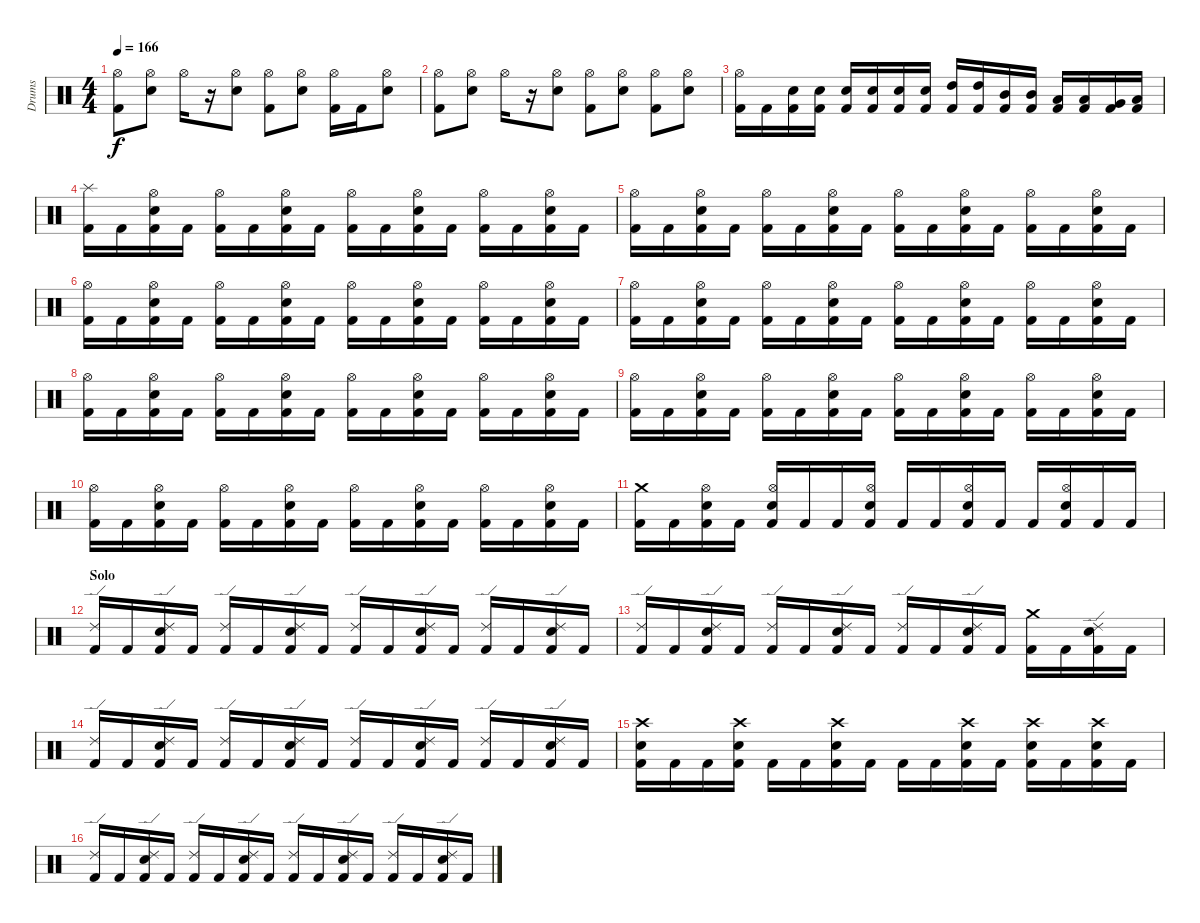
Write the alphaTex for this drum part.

\track ("Drums" "Drums") {instrument percussion}
\staff {score}
\articulation defaults
\ts (4 4)
\tempo 166
\clef neutral
\ks c
("Kick (hit) 2" "Hi-Hat (open)").8{dy f} ("Electric Snare (hit)" "Hi-Hat (open)").8 "Hi-Hat (open)".16 r.16 ("Electric Snare (hit)" "Hi-Hat (open)").8 ("Kick (hit) 2" "Hi-Hat (open)").8 ("Electric Snare (hit)" "Hi-Hat (open)").8 ("Kick (hit) 2" "Hi-Hat (open)").16 "Kick (hit) 2".16 ("Electric Snare (hit)" "Hi-Hat (open)").8 |
("Kick (hit) 2" "Hi-Hat (open)").8 ("Electric Snare (hit)" "Hi-Hat (open)").8 "Hi-Hat (open)".16 r.16 ("Electric Snare (hit)" "Hi-Hat (open)").8 ("Kick (hit) 2" "Hi-Hat (open)").8 ("Electric Snare (hit)" "Hi-Hat (open)").8 ("Kick (hit) 2" "Hi-Hat (open)").8 ("Electric Snare (hit)" "Hi-Hat (open)").8 |
("Kick (hit) 2" "Hi-Hat (open)").16 "Kick (hit) 2".16 ("Kick (hit) 2" "Electric Snare (hit)").16 ("Kick (hit) 2" "Electric Snare (hit)").16 ("Kick (hit) 2" "Electric Snare (hit)").16 ("Kick (hit) 2" "Electric Snare (hit)").16 ("Kick (hit) 2" "Electric Snare (hit)").16 ("Kick (hit) 2" "Electric Snare (hit)").16 ("Kick (hit) 2" "High Tom (hit)").16 ("Kick (hit) 2" "High Tom (hit)").16 ("Kick (hit) 2" "Mid Tom (hit)").16 ("Kick (hit) 2" "Mid Tom (hit)").16 ("Kick (hit) 2" "Low Tom (hit)").16 ("Kick (hit) 2" "Low Tom (hit)").16 ("Kick (hit) 2" "Very Low Tom (hit)").16 ("Kick (hit) 2" "Low Floor Tom (hit)").16 |
\section ("" "")
("Kick (hit) 2" "Splash (hit)").16 "Kick (hit) 2".16 ("Kick (hit) 2" "Electric Snare (hit)" "Hi-Hat (open)").16 "Kick (hit) 2".16 ("Kick (hit) 2" "Hi-Hat (open)").16 "Kick (hit) 2".16 ("Kick (hit) 2" "Electric Snare (hit)" "Hi-Hat (open)").16 "Kick (hit) 2".16 ("Kick (hit) 2" "Hi-Hat (open)").16 "Kick (hit) 2".16 ("Kick (hit) 2" "Electric Snare (hit)" "Hi-Hat (open)").16 "Kick (hit) 2".16 ("Kick (hit) 2" "Hi-Hat (open)").16 "Kick (hit) 2".16 ("Kick (hit) 2" "Electric Snare (hit)" "Hi-Hat (open)").16 "Kick (hit) 2".16 |
("Kick (hit) 2" "Hi-Hat (open)").16 "Kick (hit) 2".16 ("Kick (hit) 2" "Electric Snare (hit)" "Hi-Hat (open)").16 "Kick (hit) 2".16 ("Kick (hit) 2" "Hi-Hat (open)").16 "Kick (hit) 2".16 ("Kick (hit) 2" "Electric Snare (hit)" "Hi-Hat (open)").16 "Kick (hit) 2".16 ("Kick (hit) 2" "Hi-Hat (open)").16 "Kick (hit) 2".16 ("Kick (hit) 2" "Electric Snare (hit)" "Hi-Hat (open)").16 "Kick (hit) 2".16 ("Kick (hit) 2" "Hi-Hat (open)").16 "Kick (hit) 2".16 ("Kick (hit) 2" "Electric Snare (hit)" "Hi-Hat (open)").16 "Kick (hit) 2".16 |
("Kick (hit) 2" "Hi-Hat (open)").16 "Kick (hit) 2".16 ("Kick (hit) 2" "Electric Snare (hit)" "Hi-Hat (open)").16 "Kick (hit) 2".16 ("Kick (hit) 2" "Hi-Hat (open)").16 "Kick (hit) 2".16 ("Kick (hit) 2" "Electric Snare (hit)" "Hi-Hat (open)").16 "Kick (hit) 2".16 ("Kick (hit) 2" "Hi-Hat (open)").16 "Kick (hit) 2".16 ("Kick (hit) 2" "Electric Snare (hit)" "Hi-Hat (open)").16 "Kick (hit) 2".16 ("Kick (hit) 2" "Hi-Hat (open)").16 "Kick (hit) 2".16 ("Kick (hit) 2" "Electric Snare (hit)" "Hi-Hat (open)").16 "Kick (hit) 2".16 |
("Kick (hit) 2" "Hi-Hat (open)").16 "Kick (hit) 2".16 ("Kick (hit) 2" "Electric Snare (hit)" "Hi-Hat (open)").16 "Kick (hit) 2".16 ("Kick (hit) 2" "Hi-Hat (open)").16 "Kick (hit) 2".16 ("Kick (hit) 2" "Electric Snare (hit)" "Hi-Hat (open)").16 "Kick (hit) 2".16 ("Kick (hit) 2" "Hi-Hat (open)").16 "Kick (hit) 2".16 ("Kick (hit) 2" "Electric Snare (hit)" "Hi-Hat (open)").16 "Kick (hit) 2".16 ("Kick (hit) 2" "Hi-Hat (open)").16 "Kick (hit) 2".16 ("Kick (hit) 2" "Electric Snare (hit)" "Hi-Hat (open)").16 "Kick (hit) 2".16 |
("Kick (hit) 2" "Hi-Hat (open)").16 "Kick (hit) 2".16 ("Kick (hit) 2" "Electric Snare (hit)" "Hi-Hat (open)").16 "Kick (hit) 2".16 ("Kick (hit) 2" "Hi-Hat (open)").16 "Kick (hit) 2".16 ("Kick (hit) 2" "Electric Snare (hit)" "Hi-Hat (open)").16 "Kick (hit) 2".16 ("Kick (hit) 2" "Hi-Hat (open)").16 "Kick (hit) 2".16 ("Kick (hit) 2" "Electric Snare (hit)" "Hi-Hat (open)").16 "Kick (hit) 2".16 ("Kick (hit) 2" "Hi-Hat (open)").16 "Kick (hit) 2".16 ("Kick (hit) 2" "Electric Snare (hit)" "Hi-Hat (open)").16 "Kick (hit) 2".16 |
("Kick (hit) 2" "Hi-Hat (open)").16 "Kick (hit) 2".16 ("Kick (hit) 2" "Electric Snare (hit)" "Hi-Hat (open)").16 "Kick (hit) 2".16 ("Kick (hit) 2" "Hi-Hat (open)").16 "Kick (hit) 2".16 ("Kick (hit) 2" "Electric Snare (hit)" "Hi-Hat (open)").16 "Kick (hit) 2".16 ("Kick (hit) 2" "Hi-Hat (open)").16 "Kick (hit) 2".16 ("Kick (hit) 2" "Electric Snare (hit)" "Hi-Hat (open)").16 "Kick (hit) 2".16 ("Kick (hit) 2" "Hi-Hat (open)").16 "Kick (hit) 2".16 ("Kick (hit) 2" "Electric Snare (hit)" "Hi-Hat (open)").16 "Kick (hit) 2".16 |
("Kick (hit) 2" "Hi-Hat (open)").16 "Kick (hit) 2".16 ("Kick (hit) 2" "Electric Snare (hit)" "Hi-Hat (open)").16 "Kick (hit) 2".16 ("Kick (hit) 2" "Hi-Hat (open)").16 "Kick (hit) 2".16 ("Kick (hit) 2" "Electric Snare (hit)" "Hi-Hat (open)").16 "Kick (hit) 2".16 ("Kick (hit) 2" "Hi-Hat (open)").16 "Kick (hit) 2".16 ("Kick (hit) 2" "Electric Snare (hit)" "Hi-Hat (open)").16 "Kick (hit) 2".16 ("Kick (hit) 2" "Hi-Hat (open)").16 "Kick (hit) 2".16 ("Kick (hit) 2" "Electric Snare (hit)" "Hi-Hat (open)").16 "Kick (hit) 2".16 |
("Kick (hit) 2" "Crash medium (hit)").16 "Kick (hit) 2".16 ("Kick (hit) 2" "Electric Snare (hit)" "Hi-Hat (open)").16 "Kick (hit) 2".16 ("Kick (hit) 2" "Electric Snare (hit)" "Hi-Hat (open)").16 "Kick (hit) 2".16 "Kick (hit) 2".16 ("Kick (hit) 2" "Electric Snare (hit)" "Hi-Hat (open)").16 "Kick (hit) 2".16 "Kick (hit) 2".16 ("Kick (hit) 2" "Electric Snare (hit)" "Hi-Hat (open)").16 "Kick (hit) 2".16 "Kick (hit) 2".16 ("Kick (hit) 2" "Electric Snare (hit)" "Hi-Hat (open)").16 "Kick (hit) 2".16 "Kick (hit) 2".16 |
\section ("" "Solo")
("Kick (hit) 2" "Ride (edge) 2").16 "Kick (hit) 2".16 ("Kick (hit) 2" "Electric Snare (hit)" "Ride (edge) 2").16 "Kick (hit) 2".16 ("Kick (hit) 2" "Ride (edge) 2").16 "Kick (hit) 2".16 ("Kick (hit) 2" "Electric Snare (hit)" "Ride (edge) 2").16 "Kick (hit) 2".16 ("Kick (hit) 2" "Ride (edge) 2").16 "Kick (hit) 2".16 ("Kick (hit) 2" "Electric Snare (hit)" "Ride (edge) 2").16 "Kick (hit) 2".16 ("Kick (hit) 2" "Ride (edge) 2").16 "Kick (hit) 2".16 ("Kick (hit) 2" "Electric Snare (hit)" "Ride (edge) 2").16 "Kick (hit) 2".16 |
("Kick (hit) 2" "Ride (edge) 2").16 "Kick (hit) 2".16 ("Kick (hit) 2" "Electric Snare (hit)" "Ride (edge) 2").16 "Kick (hit) 2".16 ("Kick (hit) 2" "Ride (edge) 2").16 "Kick (hit) 2".16 ("Kick (hit) 2" "Electric Snare (hit)" "Ride (edge) 2").16 "Kick (hit) 2".16 ("Kick (hit) 2" "Ride (edge) 2").16 "Kick (hit) 2".16 ("Kick (hit) 2" "Electric Snare (hit)" "Ride (edge) 2").16 "Kick (hit) 2".16 ("Kick (hit) 2" "Crash medium (hit)").16 "Kick (hit) 2".16 ("Kick (hit) 2" "Electric Snare (hit)" "Ride (edge) 2").16 "Kick (hit) 2".16 |
("Kick (hit) 2" "Ride (edge) 2").16 "Kick (hit) 2".16 ("Kick (hit) 2" "Electric Snare (hit)" "Ride (edge) 2").16 "Kick (hit) 2".16 ("Kick (hit) 2" "Ride (edge) 2").16 "Kick (hit) 2".16 ("Kick (hit) 2" "Electric Snare (hit)" "Ride (edge) 2").16 "Kick (hit) 2".16 ("Kick (hit) 2" "Ride (edge) 2").16 "Kick (hit) 2".16 ("Kick (hit) 2" "Electric Snare (hit)" "Ride (edge) 2").16 "Kick (hit) 2".16 ("Kick (hit) 2" "Ride (edge) 2").16 "Kick (hit) 2".16 ("Kick (hit) 2" "Electric Snare (hit)" "Ride (edge) 2").16 "Kick (hit) 2".16 |
("Kick (hit) 2" "Electric Snare (hit)" "Crash high (hit)").16 "Kick (hit) 2".16 "Kick (hit) 2".16 ("Kick (hit) 2" "Electric Snare (hit)" "Crash high (hit)").16 "Kick (hit) 2".16 "Kick (hit) 2".16 ("Kick (hit) 2" "Electric Snare (hit)" "Crash high (hit)").16 "Kick (hit) 2".16 "Kick (hit) 2".16 "Kick (hit) 2".16 ("Kick (hit) 2" "Electric Snare (hit)" "Crash high (hit)").16 "Kick (hit) 2".16 ("Kick (hit) 2" "Electric Snare (hit)" "Crash high (hit)").16 "Kick (hit) 2".16 ("Kick (hit) 2" "Electric Snare (hit)" "Crash high (hit)").16 "Kick (hit) 2".16 |
("Kick (hit) 2" "Ride (edge) 2").16 "Kick (hit) 2".16 ("Kick (hit) 2" "Electric Snare (hit)" "Ride (edge) 2").16 "Kick (hit) 2".16 ("Kick (hit) 2" "Ride (edge) 2").16 "Kick (hit) 2".16 ("Kick (hit) 2" "Electric Snare (hit)" "Ride (edge) 2").16 "Kick (hit) 2".16 ("Kick (hit) 2" "Ride (edge) 2").16 "Kick (hit) 2".16 ("Kick (hit) 2" "Electric Snare (hit)" "Ride (edge) 2").16 "Kick (hit) 2".16 ("Kick (hit) 2" "Ride (edge) 2").16 "Kick (hit) 2".16 ("Kick (hit) 2" "Electric Snare (hit)" "Ride (edge) 2").16 "Kick (hit) 2".16
